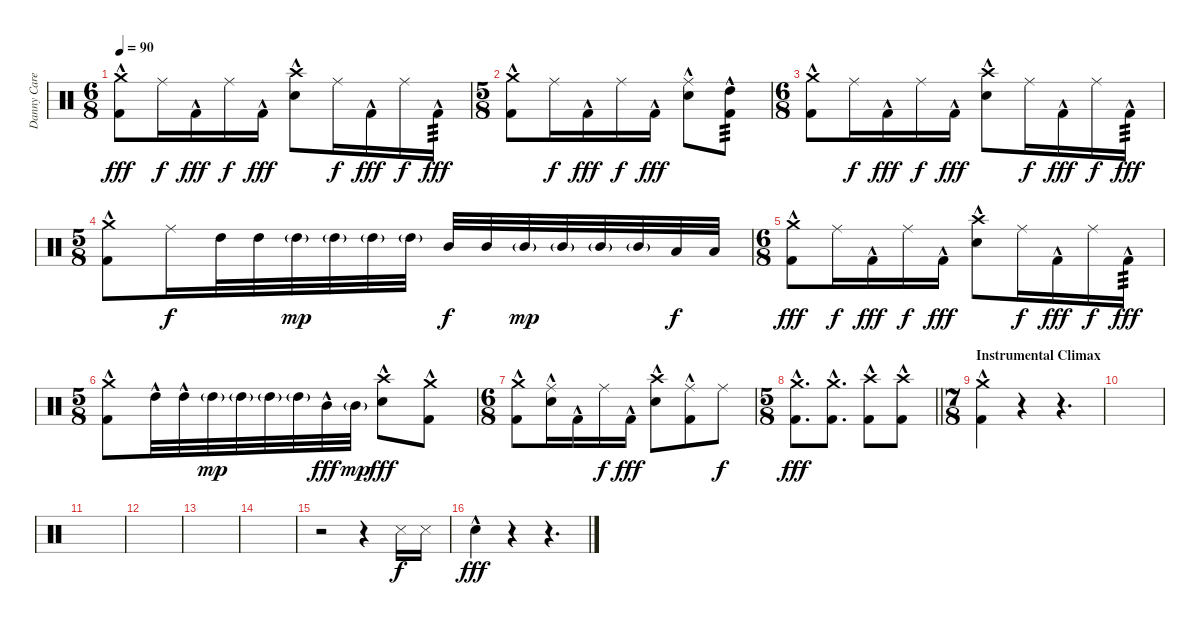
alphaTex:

\track ("Danny Carey" "Danny Care") {instrument percussion}
\staff {score}
\articulation defaults
\ts (6 8)
\tempo 90
\clef neutral
\ks c
("Crash medium (hit)" "Kick (hit) 2"{hac}).8{dy fff} "Ride (middle)".16{dy f} "Kick (hit) 2"{hac}.16{dy fff} "Ride (middle)".16{dy f} "Kick (hit) 2"{hac}.16{dy fff} ("Crash high (hit)" "Electric Snare (hit)"{hac}).8 "Ride (middle)".16{dy f} "Kick (hit) 2"{hac}.16{dy fff} "Ride (middle)".16{dy f} "Kick (hit) 2"{hac}.16{tp 3 dy fff} |
\ts (5 8)
("Crash medium (hit)" "Kick (hit) 2"{hac}).8 "Ride (middle)".16{dy f} "Kick (hit) 2"{hac}.16{dy fff} "Ride (middle)".16{dy f} "Kick (hit) 2"{hac}.16{dy fff} ("Ride (middle)" "Electric Snare (hit)"{hac}).8 ("High Tom (hit)" "Kick (hit) 2"{hac}).8{tp 3} |
\ts (6 8)
("Crash medium (hit)" "Kick (hit) 2"{hac}).8 "Ride (middle)".16{dy f} "Kick (hit) 2"{hac}.16{dy fff} "Ride (middle)".16{dy f} "Kick (hit) 2"{hac}.16{dy fff} ("Crash high (hit)" "Electric Snare (hit)"{hac}).8 "Ride (middle)".16{dy f} "Kick (hit) 2"{hac}.16{dy fff} "Ride (middle)".16{dy f} "Kick (hit) 2"{hac}.16{tp 3 dy fff} |
\ts (5 8)
("Crash medium (hit)" "Kick (hit) 2"{hac}).8 "Ride (middle)".16{dy f} "High Tom (hit)".32 "High Tom (hit)".32 "High Tom (hit)"{g}.32{dy mp} "High Tom (hit)"{g}.32 "High Tom (hit)"{g}.32 "High Tom (hit)"{g}.32 "Mid Tom (hit)".32{dy f} "Mid Tom (hit)".32 "Mid Tom (hit)"{g}.32{dy mp} "Mid Tom (hit)"{g}.32 "Mid Tom (hit)"{g}.32 "Mid Tom (hit)"{g}.32 "Low Tom (hit)".32{dy f} "Low Tom (hit)".32 |
\ts (6 8)
("Crash medium (hit)" "Kick (hit) 2"{hac}).8{dy fff} "Ride (middle)".16{dy f} "Kick (hit) 2"{hac}.16{dy fff} "Ride (middle)".16{dy f} "Kick (hit) 2"{hac}.16{dy fff} ("Crash high (hit)" "Electric Snare (hit)"{hac}).8 "Ride (middle)".16{dy f} "Kick (hit) 2"{hac}.16{dy fff} "Ride (middle)".16{dy f} "Kick (hit) 2"{hac}.16{tp 3 dy fff} |
\ts (5 8)
("Crash medium (hit)" "Kick (hit) 2"{hac}).8 "High Tom (hit)"{hac}.32 "High Tom (hit)"{hac}.32 "High Tom (hit)"{g}.32{dy mp} "High Tom (hit)"{g}.32 "High Tom (hit)"{g}.32 "High Tom (hit)"{g}.32 "Mid Tom (hit)"{hac}.32{dy fff} "Mid Tom (hit)"{g}.32{dy mp} ("Crash high (hit)" "Electric Snare (hit)"{hac}).8{dy fff} ("Crash medium (hit)" "Kick (hit) 2"{hac}).8 |
\ts (6 8)
("Crash medium (hit)" "Kick (hit) 2"{hac}).8 ("Ride (middle)" "Electric Snare (hit)"{hac}).16 "Kick (hit) 2"{hac}.16 "Ride (middle)".16{dy f} "Kick (hit) 2"{hac}.16{dy fff} ("Crash high (hit)" "Electric Snare (hit)"{hac}).8 ("Ride (middle)" "Kick (hit) 2"{hac}).8 "Ride (middle)".8{dy f} |
\ts (5 8)
\barLineRight lightlight
("Crash medium (hit)" "Kick (hit) 2"{hac}).8{d dy fff} ("Crash medium (hit)" "Kick (hit) 2"{hac}).8{d} ("Crash high (hit)" "Kick (hit) 2"{hac}).8 ("Crash high (hit)" "Kick (hit) 2"{hac}).8 |
\ts (7 8)
\section ("" "Instrumental Climax")
("Crash medium (hit)" "Kick (hit) 2"{hac}).4 r.4 r.4{d} |
|
|
|
|
|
r.2 r.4 "Snare (side stick) 3".16{dy f} "Snare (side stick) 3".16 |
"Hand Clap (hit)"{hac}.4{dy fff} r.4 r.4{d}
